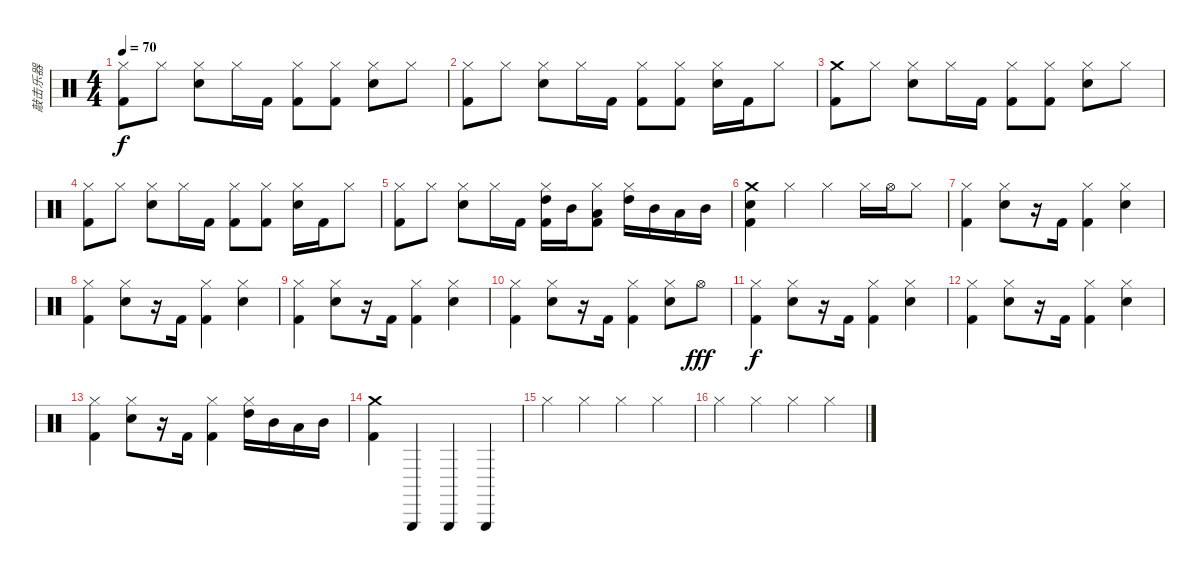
\track ("敲击乐器" "敲击乐器") {instrument percussion}
\staff {score}
\articulation defaults
\ts (4 4)
\tempo 70
\clef neutral
\ks c
("Hi-Hat (closed)" "Kick (hit) 2").8{dy f} "Hi-Hat (closed)".8 ("Hi-Hat (closed)" "Electric Snare (hit)").8 "Hi-Hat (closed)".16 "Kick (hit) 2".16 ("Hi-Hat (closed)" "Kick (hit) 2").8 ("Hi-Hat (closed)" "Kick (hit) 2").8 ("Hi-Hat (closed)" "Electric Snare (hit)").8 "Hi-Hat (closed)".8 |
("Hi-Hat (closed)" "Kick (hit) 2").8 "Hi-Hat (closed)".8 ("Hi-Hat (closed)" "Electric Snare (hit)").8 "Hi-Hat (closed)".16 "Kick (hit) 2".16 ("Hi-Hat (closed)" "Kick (hit) 2").8 ("Hi-Hat (closed)" "Kick (hit) 2").8 ("Hi-Hat (closed)" "Electric Snare (hit)").16 "Kick (hit) 2".16 "Hi-Hat (closed)".8 |
("Crash medium (hit)" "Kick (hit) 2").8 "Hi-Hat (closed)".8 ("Hi-Hat (closed)" "Electric Snare (hit)").8 "Hi-Hat (closed)".16 "Kick (hit) 2".16 ("Hi-Hat (closed)" "Kick (hit) 2").8 ("Hi-Hat (closed)" "Kick (hit) 2").8 ("Hi-Hat (closed)" "Electric Snare (hit)").8 "Hi-Hat (closed)".8 |
("Hi-Hat (closed)" "Kick (hit) 2").8 "Hi-Hat (closed)".8 ("Hi-Hat (closed)" "Electric Snare (hit)").8 "Hi-Hat (closed)".16 "Kick (hit) 2".16 ("Hi-Hat (closed)" "Kick (hit) 2").8 ("Hi-Hat (closed)" "Kick (hit) 2").8 ("Hi-Hat (closed)" "Electric Snare (hit)").16 "Kick (hit) 2".16 "Hi-Hat (closed)".8 |
("Hi-Hat (closed)" "Kick (hit) 2").8 "Hi-Hat (closed)".8 ("Hi-Hat (closed)" "Electric Snare (hit)").8 "Hi-Hat (closed)".16 "Kick (hit) 2".16 ("Hi-Hat (closed)" "High Tom (hit)" "Kick (hit) 2").16 "Mid Tom (hit)".16 ("Hi-Hat (closed)" "Low Tom (hit)" "Kick (hit) 2").8 ("Hi-Hat (closed)" "High Tom (hit)").16 "Mid Tom (hit)".16 "Low Tom (hit)".16 "Mid Tom (hit)".16 |
("Crash medium (hit)" "Electric Snare (hit)" "Kick (hit) 2").4 "Hi-Hat (closed)".4 "Hi-Hat (closed)".4 "Hi-Hat (closed)".16 "Hi-Hat (open)".16 "Hi-Hat (closed)".8 |
("Hi-Hat (closed)" "Kick (hit) 2").4 ("Hi-Hat (closed)" "Hand Clap (hit)").8 r.16 "Kick (hit) 2".16 ("Hi-Hat (closed)" "Kick (hit) 2").4 ("Hi-Hat (closed)" "Hand Clap (hit)").4 |
("Hi-Hat (closed)" "Kick (hit) 2").4 ("Hi-Hat (closed)" "Hand Clap (hit)").8 r.16 "Kick (hit) 2".16 ("Hi-Hat (closed)" "Kick (hit) 2").4 ("Hi-Hat (closed)" "Hand Clap (hit)").4 |
("Hi-Hat (closed)" "Kick (hit) 2").4 ("Hi-Hat (closed)" "Hand Clap (hit)").8 r.16 "Kick (hit) 2".16 ("Hi-Hat (closed)" "Kick (hit) 2").4 ("Hi-Hat (closed)" "Hand Clap (hit)").4 |
("Hi-Hat (closed)" "Kick (hit) 2").4 ("Hi-Hat (closed)" "Hand Clap (hit)").8 r.16 "Kick (hit) 2".16 ("Hi-Hat (closed)" "Kick (hit) 2").4 ("Hi-Hat (closed)" "Hand Clap (hit)").8 "Hi-Hat (open)".8{dy fff} |
("Hi-Hat (closed)" "Kick (hit) 2").4{dy f} ("Hi-Hat (closed)" "Hand Clap (hit)").8 r.16 "Kick (hit) 2".16 ("Hi-Hat (closed)" "Kick (hit) 2").4 ("Hi-Hat (closed)" "Hand Clap (hit)").4 |
("Hi-Hat (closed)" "Kick (hit) 2").4 ("Hi-Hat (closed)" "Hand Clap (hit)").8 r.16 "Kick (hit) 2".16 ("Hi-Hat (closed)" "Kick (hit) 2").4 ("Hi-Hat (closed)" "Hand Clap (hit)").4 |
("Hi-Hat (closed)" "Kick (hit) 2").4 ("Hi-Hat (closed)" "Hand Clap (hit)").8 r.16 "Kick (hit) 2".16 ("Hi-Hat (closed)" "Kick (hit) 2").4 ("Hi-Hat (closed)" "High Tom (hit)").16 "Mid Tom (hit)".16 "Low Tom (hit)".16 "Mid Tom (hit)".16 |
("Crash medium (hit)" "Kick (hit) 2").4 "Triangle (hit)".4 "Triangle (hit)".4 "Triangle (hit)".4 |
"Hi-Hat (closed)".4 "Hi-Hat (closed)".4 "Hi-Hat (closed)".4 "Hi-Hat (closed)".4 |
"Hi-Hat (closed)".4 "Hi-Hat (closed)".4 "Hi-Hat (closed)".4 "Hi-Hat (closed)".4
